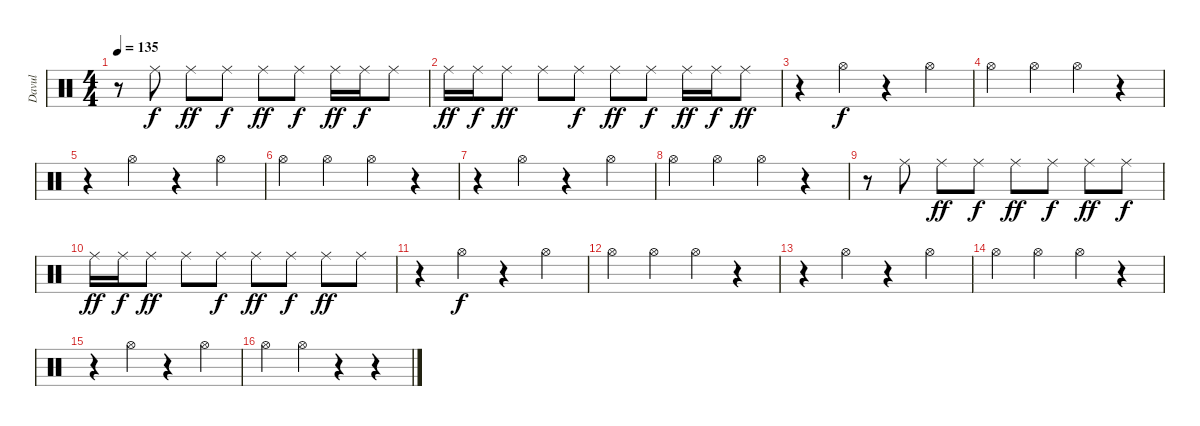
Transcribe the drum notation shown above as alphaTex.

\track ("Davul" "Davul") {instrument percussion}
\staff {score}
\articulation defaults
\ts (4 4)
\tempo 135
\clef neutral
\ks c
r.8{dy f} "Ride (middle)".8 "Ride (middle)".8{dy ff} "Ride (middle)".8{dy f} "Ride (middle)".8{dy ff} "Ride (middle)".8{dy f} "Ride (middle)".16{dy ff} "Ride (middle)".16{dy f} "Ride (middle)".8 |
"Ride (middle)".16{dy ff} "Ride (middle)".16{dy f} "Ride (middle)".8{dy ff} "Ride (middle)".8 "Ride (middle)".8{dy f} "Ride (middle)".8{dy ff} "Ride (middle)".8{dy f} "Ride (middle)".16{dy ff} "Ride (middle)".16{dy f} "Ride (middle)".8{dy ff} |
r.4 "Hi-Hat (open)".4{dy f} r.4 "Hi-Hat (open)".4 |
"Hi-Hat (open)".4 "Hi-Hat (open)".4 "Hi-Hat (open)".4 r.4 |
r.4 "Hi-Hat (open)".4 r.4 "Hi-Hat (open)".4 |
"Hi-Hat (open)".4 "Hi-Hat (open)".4 "Hi-Hat (open)".4 r.4 |
r.4 "Hi-Hat (open)".4 r.4 "Hi-Hat (open)".4 |
"Hi-Hat (open)".4 "Hi-Hat (open)".4 "Hi-Hat (open)".4 r.4 |
r.8 "Ride (middle)".8 "Ride (middle)".8{dy ff} "Ride (middle)".8{dy f} "Ride (middle)".8{dy ff} "Ride (middle)".8{dy f} "Ride (middle)".8{dy ff} "Ride (middle)".8{dy f} |
"Ride (middle)".16{dy ff} "Ride (middle)".16{dy f} "Ride (middle)".8{dy ff} "Ride (middle)".8 "Ride (middle)".8{dy f} "Ride (middle)".8{dy ff} "Ride (middle)".8{dy f} "Ride (middle)".8{dy ff} "Ride (middle)".8 |
r.4 "Hi-Hat (open)".4{dy f} r.4 "Hi-Hat (open)".4 |
"Hi-Hat (open)".4 "Hi-Hat (open)".4 "Hi-Hat (open)".4 r.4 |
r.4 "Hi-Hat (open)".4 r.4 "Hi-Hat (open)".4 |
"Hi-Hat (open)".4 "Hi-Hat (open)".4 "Hi-Hat (open)".4 r.4 |
r.4 "Hi-Hat (open)".4 r.4 "Hi-Hat (open)".4 |
"Hi-Hat (open)".4 "Hi-Hat (open)".4 r.4 r.4
